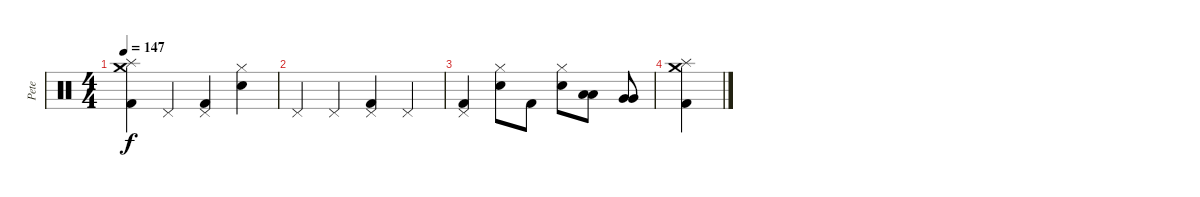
\track ("Pete" "Pete") {instrument percussion}
\staff {score}
\articulation defaults
\ts (4 4)
\tempo 147
\clef neutral
\ks c
("Crash medium (hit)" "Splash (hit)" "Kick (hit) 2").4{dy f} "Pedal Hi-Hat (hit)".4 ("Pedal Hi-Hat (hit)" "Kick (hit) 2").4 ("Hi-Hat (closed)" "Electric Snare (hit)").4 |
"Pedal Hi-Hat (hit)".4 "Pedal Hi-Hat (hit)".4 ("Pedal Hi-Hat (hit)" "Kick (hit) 2").4 "Pedal Hi-Hat (hit)".4 |
("Pedal Hi-Hat (hit)" "Kick (hit) 2").4 ("Hi-Hat (closed)" "Electric Snare (hit)").8 "Kick (hit) 2".8 ("Hi-Hat (closed)" "Electric Snare (hit)").8 ("Low Tom (hit)" "Low Tom (hit)").8 ("Very Low Tom (hit)" "Very Low Tom (hit)").8 |
("Crash medium (hit)" "Splash (hit)" "Kick (hit) 2").4
